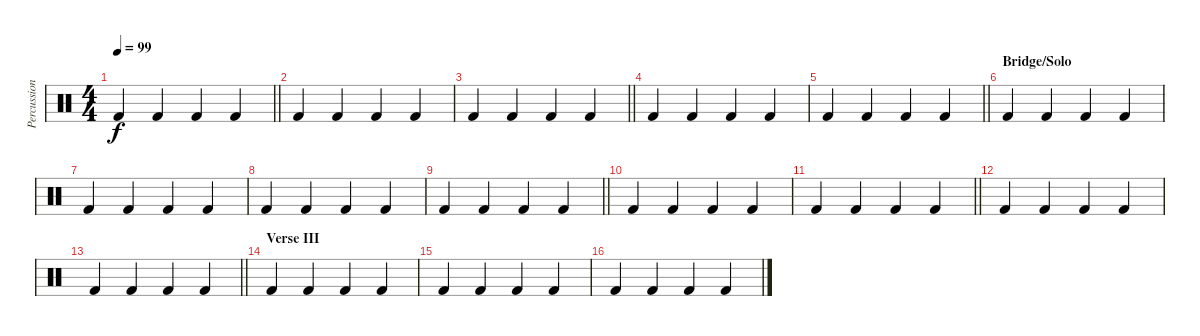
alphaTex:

\track ("Percussion" "Percussion") {instrument percussion}
\staff {score}
\articulation defaults
\ts (4 4)
\tempo 99
\clef neutral
\barLineRight lightlight
\ks c "Kick (hit) 2".4{dy f} "Kick (hit) 2".4 "Kick (hit) 2".4 "Kick (hit) 2".4
|
"Kick (hit) 2".4 "Kick (hit) 2".4 "Kick (hit) 2".4 "Kick (hit) 2".4 |
\barLineRight lightlight "Kick (hit) 2".4 "Kick (hit) 2".4 "Kick (hit) 2".4 "Kick (hit) 2".4
|
"Kick (hit) 2".4 "Kick (hit) 2".4 "Kick (hit) 2".4 "Kick (hit) 2".4 |
\barLineRight lightlight "Kick (hit) 2".4 "Kick (hit) 2".4 "Kick (hit) 2".4 "Kick (hit) 2".4
|
\section ("" "Bridge/Solo")
"Kick (hit) 2".4 "Kick (hit) 2".4 "Kick (hit) 2".4 "Kick (hit) 2".4 |
"Kick (hit) 2".4 "Kick (hit) 2".4 "Kick (hit) 2".4 "Kick (hit) 2".4 |
"Kick (hit) 2".4 "Kick (hit) 2".4 "Kick (hit) 2".4 "Kick (hit) 2".4 |
\barLineRight lightlight "Kick (hit) 2".4 "Kick (hit) 2".4 "Kick (hit) 2".4 "Kick (hit) 2".4
|
"Kick (hit) 2".4 "Kick (hit) 2".4 "Kick (hit) 2".4 "Kick (hit) 2".4 |
\barLineRight lightlight "Kick (hit) 2".4 "Kick (hit) 2".4 "Kick (hit) 2".4 "Kick (hit) 2".4
|
"Kick (hit) 2".4 "Kick (hit) 2".4 "Kick (hit) 2".4 "Kick (hit) 2".4 |
\barLineRight lightlight "Kick (hit) 2".4 "Kick (hit) 2".4 "Kick (hit) 2".4 "Kick (hit) 2".4
|
\section ("" "Verse III")
"Kick (hit) 2".4 "Kick (hit) 2".4 "Kick (hit) 2".4 "Kick (hit) 2".4 |
"Kick (hit) 2".4 "Kick (hit) 2".4 "Kick (hit) 2".4 "Kick (hit) 2".4 |
"Kick (hit) 2".4 "Kick (hit) 2".4 "Kick (hit) 2".4 "Kick (hit) 2".4
